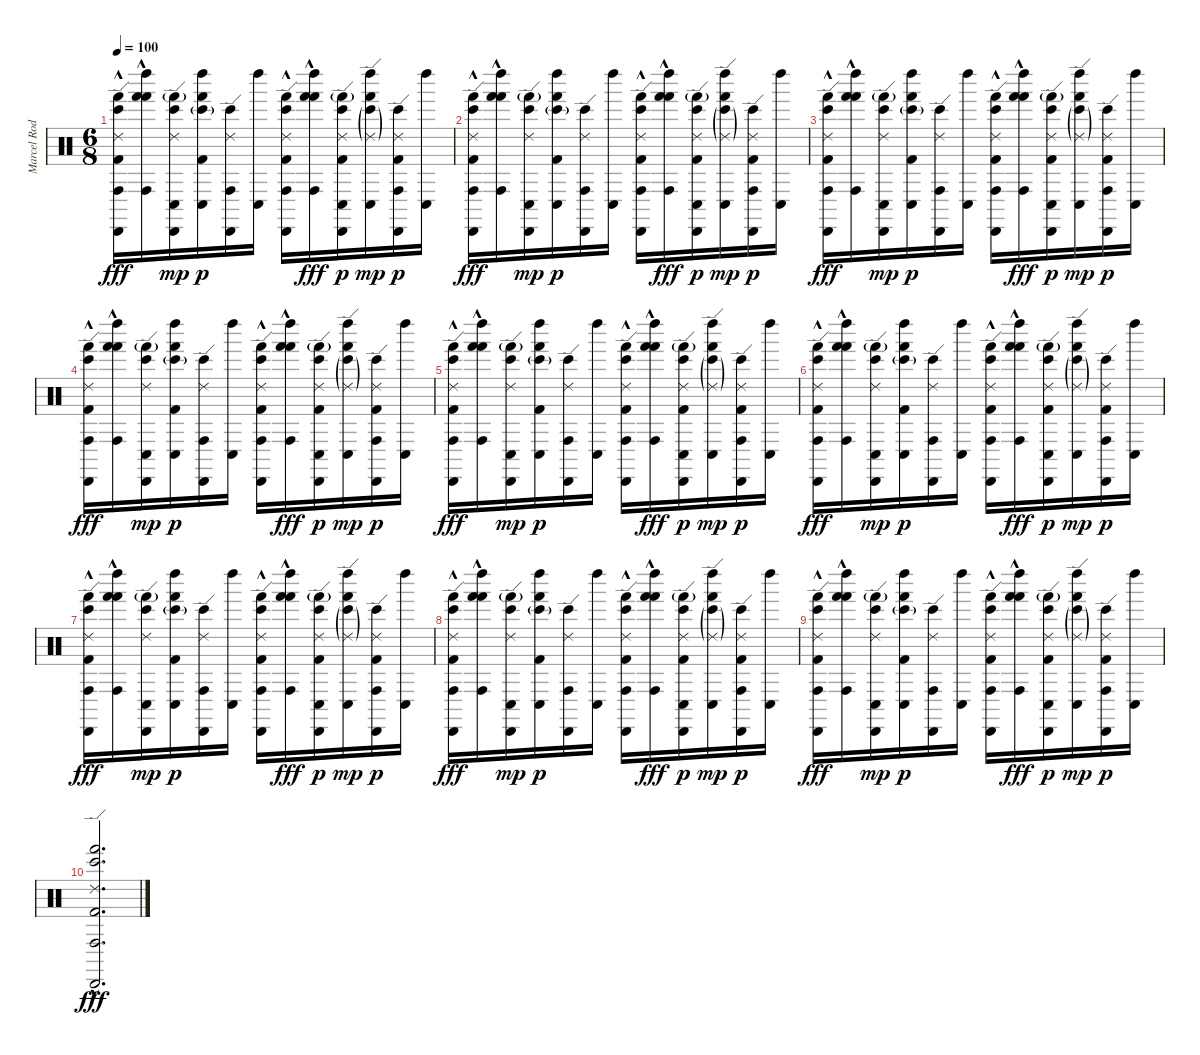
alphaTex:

\track ("Marcel Rodriguez & Thomas Pridgen" "Marcel Rod") {instrument percussion}
\staff {score}
\articulation defaults
\ts (6 8)
\tempo 100
\clef neutral
\ks c
("Ride (edge) 2" "Cabasa (hit)" "Bongo High (hit)" "Conga high (hit)" "Hand (hit)"{hac} "Kick (hit) 2").16{dy fff} ("Left Maraca (hit)" "Hand (hit)" "Conga high (hit)" "Hand (hit)"{hac}).16 ("Ride (edge) 2" "Cabasa (hit)" "Bongo High (hit)" "Conga low (hit)" "Hand (hit)"{g}).16{dy mp} ("Left Maraca (hit)" "Hand (hit)" "Conga low (hit)" "Bongo High (hit)"{g} "Kick (hit) 2").16{dy p} ("Ride (edge) 2" "Cabasa (hit)" "Bongo High (hit)" "Conga high (hit)").16 ("Left Maraca (hit)" "Conga low (hit)").16 ("Ride (edge) 2" "Cabasa (hit)" "Bongo High (hit)" "Conga high (hit)" "Hand (hit)"{hac} "Kick (hit) 2").16 ("Left Maraca (hit)" "Hand (hit)" "Conga high (hit)" "Hand (hit)"{hac}).16{dy fff} ("Ride (edge) 2" "Cabasa (hit)" "Bongo High (hit)" "Conga low (hit)" "Hand (hit)"{g} "Kick (hit) 2").16{dy p} ("Ride (edge) 2"{g} "Left Maraca (hit)" "Hand (hit)" "Conga low (hit)" "Bongo High (hit)"{g}).16{dy mp} ("Ride (edge) 2" "Cabasa (hit)" "Bongo High (hit)" "Conga high (hit)" "Kick (hit) 2").16{dy p} ("Left Maraca (hit)" "Conga low (hit)").16 |
("Ride (edge) 2" "Cabasa (hit)" "Bongo High (hit)" "Conga high (hit)" "Hand (hit)"{hac} "Kick (hit) 2").16{dy fff} ("Left Maraca (hit)" "Hand (hit)" "Conga high (hit)" "Hand (hit)"{hac}).16 ("Ride (edge) 2" "Cabasa (hit)" "Bongo High (hit)" "Conga low (hit)" "Hand (hit)"{g}).16{dy mp} ("Left Maraca (hit)" "Hand (hit)" "Conga low (hit)" "Bongo High (hit)"{g} "Kick (hit) 2").16{dy p} ("Ride (edge) 2" "Cabasa (hit)" "Bongo High (hit)" "Conga high (hit)").16 ("Left Maraca (hit)" "Conga low (hit)").16 ("Ride (edge) 2" "Cabasa (hit)" "Bongo High (hit)" "Conga high (hit)" "Hand (hit)"{hac} "Kick (hit) 2").16 ("Left Maraca (hit)" "Hand (hit)" "Conga high (hit)" "Hand (hit)"{hac}).16{dy fff} ("Ride (edge) 2" "Cabasa (hit)" "Bongo High (hit)" "Conga low (hit)" "Hand (hit)"{g} "Kick (hit) 2").16{dy p} ("Ride (edge) 2"{g} "Left Maraca (hit)" "Hand (hit)" "Conga low (hit)" "Bongo High (hit)"{g}).16{dy mp} ("Ride (edge) 2" "Cabasa (hit)" "Bongo High (hit)" "Conga high (hit)" "Kick (hit) 2").16{dy p} ("Left Maraca (hit)" "Conga low (hit)").16 |
("Ride (edge) 2" "Cabasa (hit)" "Bongo High (hit)" "Conga high (hit)" "Hand (hit)"{hac} "Kick (hit) 2").16{dy fff} ("Left Maraca (hit)" "Hand (hit)" "Conga high (hit)" "Hand (hit)"{hac}).16 ("Ride (edge) 2" "Cabasa (hit)" "Bongo High (hit)" "Conga low (hit)" "Hand (hit)"{g}).16{dy mp} ("Left Maraca (hit)" "Hand (hit)" "Conga low (hit)" "Bongo High (hit)"{g} "Kick (hit) 2").16{dy p} ("Ride (edge) 2" "Cabasa (hit)" "Bongo High (hit)" "Conga high (hit)").16 ("Left Maraca (hit)" "Conga low (hit)").16 ("Ride (edge) 2" "Cabasa (hit)" "Bongo High (hit)" "Conga high (hit)" "Hand (hit)"{hac} "Kick (hit) 2").16 ("Left Maraca (hit)" "Hand (hit)" "Conga high (hit)" "Hand (hit)"{hac}).16{dy fff} ("Ride (edge) 2" "Cabasa (hit)" "Bongo High (hit)" "Conga low (hit)" "Hand (hit)"{g} "Kick (hit) 2").16{dy p} ("Ride (edge) 2"{g} "Left Maraca (hit)" "Hand (hit)" "Conga low (hit)" "Bongo High (hit)"{g}).16{dy mp} ("Ride (edge) 2" "Cabasa (hit)" "Bongo High (hit)" "Conga high (hit)" "Kick (hit) 2").16{dy p} ("Left Maraca (hit)" "Conga low (hit)").16 |
("Ride (edge) 2" "Cabasa (hit)" "Bongo High (hit)" "Conga high (hit)" "Hand (hit)"{hac} "Kick (hit) 2").16{dy fff} ("Left Maraca (hit)" "Hand (hit)" "Conga high (hit)" "Hand (hit)"{hac}).16 ("Ride (edge) 2" "Cabasa (hit)" "Bongo High (hit)" "Conga low (hit)" "Hand (hit)"{g}).16{dy mp} ("Left Maraca (hit)" "Hand (hit)" "Conga low (hit)" "Bongo High (hit)"{g} "Kick (hit) 2").16{dy p} ("Ride (edge) 2" "Cabasa (hit)" "Bongo High (hit)" "Conga high (hit)").16 ("Left Maraca (hit)" "Conga low (hit)").16 ("Ride (edge) 2" "Cabasa (hit)" "Bongo High (hit)" "Conga high (hit)" "Hand (hit)"{hac} "Kick (hit) 2").16 ("Left Maraca (hit)" "Hand (hit)" "Conga high (hit)" "Hand (hit)"{hac}).16{dy fff} ("Ride (edge) 2" "Cabasa (hit)" "Bongo High (hit)" "Conga low (hit)" "Hand (hit)"{g} "Kick (hit) 2").16{dy p} ("Ride (edge) 2"{g} "Left Maraca (hit)" "Hand (hit)" "Conga low (hit)" "Bongo High (hit)"{g}).16{dy mp} ("Ride (edge) 2" "Cabasa (hit)" "Bongo High (hit)" "Conga high (hit)" "Kick (hit) 2").16{dy p} ("Left Maraca (hit)" "Conga low (hit)").16 |
("Ride (edge) 2" "Cabasa (hit)" "Bongo High (hit)" "Conga high (hit)" "Hand (hit)"{hac} "Kick (hit) 2").16{dy fff} ("Left Maraca (hit)" "Hand (hit)" "Conga high (hit)" "Hand (hit)"{hac}).16 ("Ride (edge) 2" "Cabasa (hit)" "Bongo High (hit)" "Conga low (hit)" "Hand (hit)"{g}).16{dy mp} ("Left Maraca (hit)" "Hand (hit)" "Conga low (hit)" "Bongo High (hit)"{g} "Kick (hit) 2").16{dy p} ("Ride (edge) 2" "Cabasa (hit)" "Bongo High (hit)" "Conga high (hit)").16 ("Left Maraca (hit)" "Conga low (hit)").16 ("Ride (edge) 2" "Cabasa (hit)" "Bongo High (hit)" "Conga high (hit)" "Hand (hit)"{hac} "Kick (hit) 2").16 ("Left Maraca (hit)" "Hand (hit)" "Conga high (hit)" "Hand (hit)"{hac}).16{dy fff} ("Ride (edge) 2" "Cabasa (hit)" "Bongo High (hit)" "Conga low (hit)" "Hand (hit)"{g} "Kick (hit) 2").16{dy p} ("Ride (edge) 2"{g} "Left Maraca (hit)" "Hand (hit)" "Conga low (hit)" "Bongo High (hit)"{g}).16{dy mp} ("Ride (edge) 2" "Cabasa (hit)" "Bongo High (hit)" "Conga high (hit)" "Kick (hit) 2").16{dy p} ("Left Maraca (hit)" "Conga low (hit)").16 |
("Ride (edge) 2" "Cabasa (hit)" "Bongo High (hit)" "Conga high (hit)" "Hand (hit)"{hac} "Kick (hit) 2").16{dy fff} ("Left Maraca (hit)" "Hand (hit)" "Conga high (hit)" "Hand (hit)"{hac}).16 ("Ride (edge) 2" "Cabasa (hit)" "Bongo High (hit)" "Conga low (hit)" "Hand (hit)"{g}).16{dy mp} ("Left Maraca (hit)" "Hand (hit)" "Conga low (hit)" "Bongo High (hit)"{g} "Kick (hit) 2").16{dy p} ("Ride (edge) 2" "Cabasa (hit)" "Bongo High (hit)" "Conga high (hit)").16 ("Left Maraca (hit)" "Conga low (hit)").16 ("Ride (edge) 2" "Cabasa (hit)" "Bongo High (hit)" "Conga high (hit)" "Hand (hit)"{hac} "Kick (hit) 2").16 ("Left Maraca (hit)" "Hand (hit)" "Conga high (hit)" "Hand (hit)"{hac}).16{dy fff} ("Ride (edge) 2" "Cabasa (hit)" "Bongo High (hit)" "Conga low (hit)" "Hand (hit)"{g} "Kick (hit) 2").16{dy p} ("Ride (edge) 2"{g} "Left Maraca (hit)" "Hand (hit)" "Conga low (hit)" "Bongo High (hit)"{g}).16{dy mp} ("Ride (edge) 2" "Cabasa (hit)" "Bongo High (hit)" "Conga high (hit)" "Kick (hit) 2").16{dy p} ("Left Maraca (hit)" "Conga low (hit)").16 |
("Ride (edge) 2" "Cabasa (hit)" "Bongo High (hit)" "Conga high (hit)" "Hand (hit)"{hac} "Kick (hit) 2").16{dy fff} ("Left Maraca (hit)" "Hand (hit)" "Conga high (hit)" "Hand (hit)"{hac}).16 ("Ride (edge) 2" "Cabasa (hit)" "Bongo High (hit)" "Conga low (hit)" "Hand (hit)"{g}).16{dy mp} ("Left Maraca (hit)" "Hand (hit)" "Conga low (hit)" "Bongo High (hit)"{g} "Kick (hit) 2").16{dy p} ("Ride (edge) 2" "Cabasa (hit)" "Bongo High (hit)" "Conga high (hit)").16 ("Left Maraca (hit)" "Conga low (hit)").16 ("Ride (edge) 2" "Cabasa (hit)" "Bongo High (hit)" "Conga high (hit)" "Hand (hit)"{hac} "Kick (hit) 2").16 ("Left Maraca (hit)" "Hand (hit)" "Conga high (hit)" "Hand (hit)"{hac}).16{dy fff} ("Ride (edge) 2" "Cabasa (hit)" "Bongo High (hit)" "Conga low (hit)" "Hand (hit)"{g} "Kick (hit) 2").16{dy p} ("Ride (edge) 2"{g} "Left Maraca (hit)" "Hand (hit)" "Conga low (hit)" "Bongo High (hit)"{g}).16{dy mp} ("Ride (edge) 2" "Cabasa (hit)" "Bongo High (hit)" "Conga high (hit)" "Kick (hit) 2").16{dy p} ("Left Maraca (hit)" "Conga low (hit)").16 |
("Ride (edge) 2" "Cabasa (hit)" "Bongo High (hit)" "Conga high (hit)" "Hand (hit)"{hac} "Kick (hit) 2").16{dy fff} ("Left Maraca (hit)" "Hand (hit)" "Conga high (hit)" "Hand (hit)"{hac}).16 ("Ride (edge) 2" "Cabasa (hit)" "Bongo High (hit)" "Conga low (hit)" "Hand (hit)"{g}).16{dy mp} ("Left Maraca (hit)" "Hand (hit)" "Conga low (hit)" "Bongo High (hit)"{g} "Kick (hit) 2").16{dy p} ("Ride (edge) 2" "Cabasa (hit)" "Bongo High (hit)" "Conga high (hit)").16 ("Left Maraca (hit)" "Conga low (hit)").16 ("Ride (edge) 2" "Cabasa (hit)" "Bongo High (hit)" "Conga high (hit)" "Hand (hit)"{hac} "Kick (hit) 2").16 ("Left Maraca (hit)" "Hand (hit)" "Conga high (hit)" "Hand (hit)"{hac}).16{dy fff} ("Ride (edge) 2" "Cabasa (hit)" "Bongo High (hit)" "Conga low (hit)" "Hand (hit)"{g} "Kick (hit) 2").16{dy p} ("Ride (edge) 2"{g} "Left Maraca (hit)" "Hand (hit)" "Conga low (hit)" "Bongo High (hit)"{g}).16{dy mp} ("Ride (edge) 2" "Cabasa (hit)" "Bongo High (hit)" "Conga high (hit)" "Kick (hit) 2").16{dy p} ("Left Maraca (hit)" "Conga low (hit)").16 |
("Ride (edge) 2" "Cabasa (hit)" "Bongo High (hit)" "Conga high (hit)" "Hand (hit)"{hac} "Kick (hit) 2").16{dy fff} ("Left Maraca (hit)" "Hand (hit)" "Conga high (hit)" "Hand (hit)"{hac}).16 ("Ride (edge) 2" "Cabasa (hit)" "Bongo High (hit)" "Conga low (hit)" "Hand (hit)"{g}).16{dy mp} ("Left Maraca (hit)" "Hand (hit)" "Conga low (hit)" "Bongo High (hit)"{g} "Kick (hit) 2").16{dy p} ("Ride (edge) 2" "Cabasa (hit)" "Bongo High (hit)" "Conga high (hit)").16 ("Left Maraca (hit)" "Conga low (hit)").16 ("Ride (edge) 2" "Cabasa (hit)" "Bongo High (hit)" "Conga high (hit)" "Hand (hit)"{hac} "Kick (hit) 2").16 ("Left Maraca (hit)" "Hand (hit)" "Conga high (hit)" "Hand (hit)"{hac}).16{dy fff} ("Ride (edge) 2" "Cabasa (hit)" "Bongo High (hit)" "Conga low (hit)" "Hand (hit)"{g} "Kick (hit) 2").16{dy p} ("Ride (edge) 2"{g} "Left Maraca (hit)" "Hand (hit)" "Conga low (hit)" "Bongo High (hit)"{g}).16{dy mp} ("Ride (edge) 2" "Cabasa (hit)" "Bongo High (hit)" "Conga high (hit)" "Kick (hit) 2").16{dy p} ("Left Maraca (hit)" "Conga low (hit)").16 |
("Ride (edge) 2" "Cabasa (hit)" "Bongo High (hit)" "Conga high (hit)" "Hand (hit)"{hac} "Kick (hit) 2").2{d dy fff}
